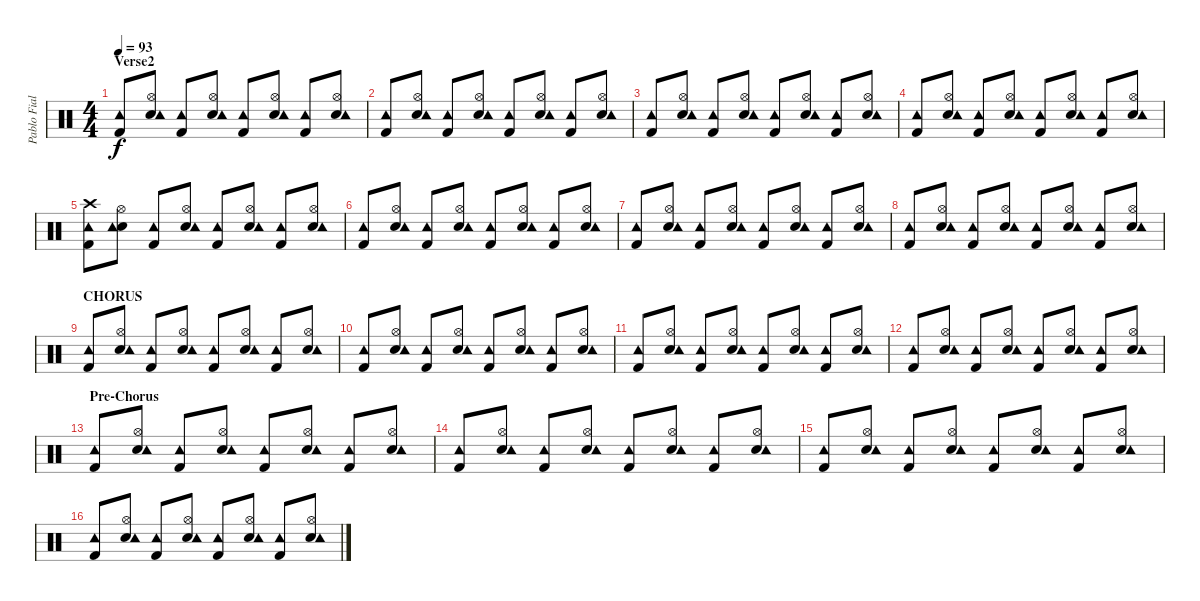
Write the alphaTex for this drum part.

\track ("Pablo Fiallo" "Pablo Fial") {instrument percussion}
\staff {score}
\articulation defaults
\ts (4 4)
\section ("" "Verse2")
\tempo 93
\clef neutral
\ks c
("Kick (hit) 2" "Tambourine (hit)").8{dy f} ("Hi-Hat (open)" "Snare (hit) 2" "Tambourine (hit)").8 ("Kick (hit) 2" "Tambourine (hit)").8 ("Hi-Hat (open)" "Snare (hit) 2" "Tambourine (hit)").8 ("Kick (hit) 2" "Tambourine (hit)").8 ("Hi-Hat (open)" "Snare (hit) 2" "Tambourine (hit)").8 ("Kick (hit) 2" "Tambourine (hit)").8 ("Hi-Hat (open)" "Snare (hit) 2" "Tambourine (hit)").8 |
("Kick (hit) 2" "Tambourine (hit)").8 ("Hi-Hat (open)" "Snare (hit) 2" "Tambourine (hit)").8 ("Kick (hit) 2" "Tambourine (hit)").8 ("Hi-Hat (open)" "Snare (hit) 2" "Tambourine (hit)").8 ("Kick (hit) 2" "Tambourine (hit)").8 ("Hi-Hat (open)" "Snare (hit) 2" "Tambourine (hit)").8 ("Kick (hit) 2" "Tambourine (hit)").8 ("Hi-Hat (open)" "Snare (hit) 2" "Tambourine (hit)").8 |
("Kick (hit) 2" "Tambourine (hit)").8 ("Hi-Hat (open)" "Snare (hit) 2" "Tambourine (hit)").8 ("Kick (hit) 2" "Tambourine (hit)").8 ("Hi-Hat (open)" "Snare (hit) 2" "Tambourine (hit)").8 ("Kick (hit) 2" "Tambourine (hit)").8 ("Hi-Hat (open)" "Snare (hit) 2" "Tambourine (hit)").8 ("Kick (hit) 2" "Tambourine (hit)").8 ("Hi-Hat (open)" "Snare (hit) 2" "Tambourine (hit)").8 |
("Kick (hit) 2" "Tambourine (hit)").8 ("Hi-Hat (open)" "Snare (hit) 2" "Tambourine (hit)").8 ("Kick (hit) 2" "Tambourine (hit)").8 ("Hi-Hat (open)" "Snare (hit) 2" "Tambourine (hit)").8 ("Kick (hit) 2" "Tambourine (hit)").8 ("Hi-Hat (open)" "Snare (hit) 2" "Tambourine (hit)").8 ("Kick (hit) 2" "Tambourine (hit)").8 ("Hi-Hat (open)" "Snare (hit) 2" "Tambourine (hit)").8 |
("Crash high (hit)" "Kick (hit) 2" "Tambourine (hit)").8 ("Hi-Hat (open)" "Snare (hit) 2" "Tambourine (hit)").8 ("Kick (hit) 2" "Tambourine (hit)").8 ("Hi-Hat (open)" "Snare (hit) 2" "Tambourine (hit)").8 ("Kick (hit) 2" "Tambourine (hit)").8 ("Hi-Hat (open)" "Snare (hit) 2" "Tambourine (hit)").8 ("Kick (hit) 2" "Tambourine (hit)").8 ("Hi-Hat (open)" "Snare (hit) 2" "Tambourine (hit)").8 |
("Kick (hit) 2" "Tambourine (hit)").8 ("Hi-Hat (open)" "Snare (hit) 2" "Tambourine (hit)").8 ("Kick (hit) 2" "Tambourine (hit)").8 ("Hi-Hat (open)" "Snare (hit) 2" "Tambourine (hit)").8 ("Kick (hit) 2" "Tambourine (hit)").8 ("Hi-Hat (open)" "Snare (hit) 2" "Tambourine (hit)").8 ("Kick (hit) 2" "Tambourine (hit)").8 ("Hi-Hat (open)" "Snare (hit) 2" "Tambourine (hit)").8 |
("Kick (hit) 2" "Tambourine (hit)").8 ("Hi-Hat (open)" "Snare (hit) 2" "Tambourine (hit)").8 ("Kick (hit) 2" "Tambourine (hit)").8 ("Hi-Hat (open)" "Snare (hit) 2" "Tambourine (hit)").8 ("Kick (hit) 2" "Tambourine (hit)").8 ("Hi-Hat (open)" "Snare (hit) 2" "Tambourine (hit)").8 ("Kick (hit) 2" "Tambourine (hit)").8 ("Hi-Hat (open)" "Snare (hit) 2" "Tambourine (hit)").8 |
("Kick (hit) 2" "Tambourine (hit)").8 ("Hi-Hat (open)" "Snare (hit) 2" "Tambourine (hit)").8 ("Kick (hit) 2" "Tambourine (hit)").8 ("Hi-Hat (open)" "Snare (hit) 2" "Tambourine (hit)").8 ("Kick (hit) 2" "Tambourine (hit)").8 ("Hi-Hat (open)" "Snare (hit) 2" "Tambourine (hit)").8 ("Kick (hit) 2" "Tambourine (hit)").8 ("Hi-Hat (open)" "Snare (hit) 2" "Tambourine (hit)").8 |
\section ("" "CHORUS")
("Kick (hit) 2" "Tambourine (hit)").8 ("Hi-Hat (open)" "Snare (hit) 2" "Tambourine (hit)").8 ("Kick (hit) 2" "Tambourine (hit)").8 ("Hi-Hat (open)" "Snare (hit) 2" "Tambourine (hit)").8 ("Kick (hit) 2" "Tambourine (hit)").8 ("Hi-Hat (open)" "Snare (hit) 2" "Tambourine (hit)").8 ("Kick (hit) 2" "Tambourine (hit)").8 ("Hi-Hat (open)" "Snare (hit) 2" "Tambourine (hit)").8 |
("Kick (hit) 2" "Tambourine (hit)").8 ("Hi-Hat (open)" "Snare (hit) 2" "Tambourine (hit)").8 ("Kick (hit) 2" "Tambourine (hit)").8 ("Hi-Hat (open)" "Snare (hit) 2" "Tambourine (hit)").8 ("Kick (hit) 2" "Tambourine (hit)").8 ("Hi-Hat (open)" "Snare (hit) 2" "Tambourine (hit)").8 ("Kick (hit) 2" "Tambourine (hit)").8 ("Hi-Hat (open)" "Snare (hit) 2" "Tambourine (hit)").8 |
("Kick (hit) 2" "Tambourine (hit)").8 ("Hi-Hat (open)" "Snare (hit) 2" "Tambourine (hit)").8 ("Kick (hit) 2" "Tambourine (hit)").8 ("Hi-Hat (open)" "Snare (hit) 2" "Tambourine (hit)").8 ("Kick (hit) 2" "Tambourine (hit)").8 ("Hi-Hat (open)" "Snare (hit) 2" "Tambourine (hit)").8 ("Kick (hit) 2" "Tambourine (hit)").8 ("Hi-Hat (open)" "Snare (hit) 2" "Tambourine (hit)").8 |
("Kick (hit) 2" "Tambourine (hit)").8 ("Hi-Hat (open)" "Snare (hit) 2" "Tambourine (hit)").8 ("Kick (hit) 2" "Tambourine (hit)").8 ("Hi-Hat (open)" "Snare (hit) 2" "Tambourine (hit)").8 ("Kick (hit) 2" "Tambourine (hit)").8 ("Hi-Hat (open)" "Snare (hit) 2" "Tambourine (hit)").8 ("Kick (hit) 2" "Tambourine (hit)").8 ("Hi-Hat (open)" "Snare (hit) 2" "Tambourine (hit)").8 |
\section ("" "Pre-Chorus")
("Kick (hit) 2" "Tambourine (hit)").8 ("Hi-Hat (open)" "Snare (hit) 2" "Tambourine (hit)").8 ("Kick (hit) 2" "Tambourine (hit)").8 ("Hi-Hat (open)" "Snare (hit) 2" "Tambourine (hit)").8 ("Kick (hit) 2" "Tambourine (hit)").8 ("Hi-Hat (open)" "Snare (hit) 2" "Tambourine (hit)").8 ("Kick (hit) 2" "Tambourine (hit)").8 ("Hi-Hat (open)" "Snare (hit) 2" "Tambourine (hit)").8 |
("Kick (hit) 2" "Tambourine (hit)").8 ("Hi-Hat (open)" "Snare (hit) 2" "Tambourine (hit)").8 ("Kick (hit) 2" "Tambourine (hit)").8 ("Hi-Hat (open)" "Snare (hit) 2" "Tambourine (hit)").8 ("Kick (hit) 2" "Tambourine (hit)").8 ("Hi-Hat (open)" "Snare (hit) 2" "Tambourine (hit)").8 ("Kick (hit) 2" "Tambourine (hit)").8 ("Hi-Hat (open)" "Snare (hit) 2" "Tambourine (hit)").8 |
("Kick (hit) 2" "Tambourine (hit)").8 ("Hi-Hat (open)" "Snare (hit) 2" "Tambourine (hit)").8 ("Kick (hit) 2" "Tambourine (hit)").8 ("Hi-Hat (open)" "Snare (hit) 2" "Tambourine (hit)").8 ("Kick (hit) 2" "Tambourine (hit)").8 ("Hi-Hat (open)" "Snare (hit) 2" "Tambourine (hit)").8 ("Kick (hit) 2" "Tambourine (hit)").8 ("Hi-Hat (open)" "Snare (hit) 2" "Tambourine (hit)").8 |
("Kick (hit) 2" "Tambourine (hit)").8 ("Hi-Hat (open)" "Snare (hit) 2" "Tambourine (hit)").8 ("Kick (hit) 2" "Tambourine (hit)").8 ("Hi-Hat (open)" "Snare (hit) 2" "Tambourine (hit)").8 ("Kick (hit) 2" "Tambourine (hit)").8 ("Hi-Hat (open)" "Snare (hit) 2" "Tambourine (hit)").8 ("Kick (hit) 2" "Tambourine (hit)").8 ("Hi-Hat (open)" "Snare (hit) 2" "Tambourine (hit)").8
